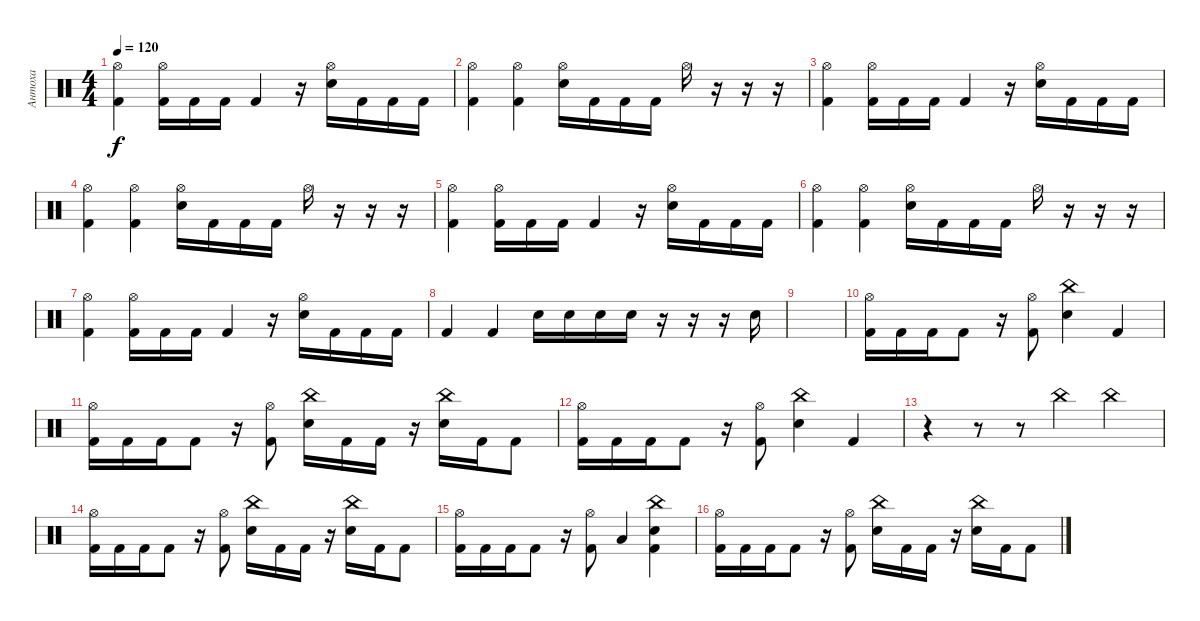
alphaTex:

\track ("Антоха" "Антоха") {instrument percussion}
\staff {score}
\articulation defaults
\ts (4 4)
\tempo 120
\clef neutral
\ks c
("Kick (hit) 2" "Hi-Hat (open)").4{dy f} ("Kick (hit) 2" "Hi-Hat (open)").16 "Kick (hit) 2".16 "Kick (hit) 2".16 "Kick (hit) 2".4 r.16 ("Electric Snare (hit)" "Hi-Hat (open)").16 "Kick (hit) 2".16 "Kick (hit) 2".16 "Kick (hit) 2".16 |
("Kick (hit) 2" "Hi-Hat (open)").4 ("Kick (hit) 2" "Hi-Hat (open)").4 ("Electric Snare (hit)" "Hi-Hat (open)").16 "Kick (hit) 2".16 "Kick (hit) 2".16 "Kick (hit) 2".16 "Hi-Hat (open)".16 r.16 r.16 r.16 |
("Kick (hit) 2" "Hi-Hat (open)").4 ("Kick (hit) 2" "Hi-Hat (open)").16 "Kick (hit) 2".16 "Kick (hit) 2".16 "Kick (hit) 2".4 r.16 ("Electric Snare (hit)" "Hi-Hat (open)").16 "Kick (hit) 2".16 "Kick (hit) 2".16 "Kick (hit) 2".16 |
("Kick (hit) 2" "Hi-Hat (open)").4 ("Kick (hit) 2" "Hi-Hat (open)").4 ("Electric Snare (hit)" "Hi-Hat (open)").16 "Kick (hit) 2".16 "Kick (hit) 2".16 "Kick (hit) 2".16 "Hi-Hat (open)".16 r.16 r.16 r.16 |
("Kick (hit) 2" "Hi-Hat (open)").4 ("Kick (hit) 2" "Hi-Hat (open)").16 "Kick (hit) 2".16 "Kick (hit) 2".16 "Kick (hit) 2".4 r.16 ("Electric Snare (hit)" "Hi-Hat (open)").16 "Kick (hit) 2".16 "Kick (hit) 2".16 "Kick (hit) 2".16 |
("Kick (hit) 2" "Hi-Hat (open)").4 ("Kick (hit) 2" "Hi-Hat (open)").4 ("Electric Snare (hit)" "Hi-Hat (open)").16 "Kick (hit) 2".16 "Kick (hit) 2".16 "Kick (hit) 2".16 "Hi-Hat (open)".16 r.16 r.16 r.16 |
("Kick (hit) 2" "Hi-Hat (open)").4 ("Kick (hit) 2" "Hi-Hat (open)").16 "Kick (hit) 2".16 "Kick (hit) 2".16 "Kick (hit) 2".4 r.16 ("Electric Snare (hit)" "Hi-Hat (open)").16 "Kick (hit) 2".16 "Kick (hit) 2".16 "Kick (hit) 2".16 |
"Kick (hit) 2".4 "Kick (hit) 2".4 "Electric Snare (hit)".16 "Electric Snare (hit)".16 "Electric Snare (hit)".16 "Electric Snare (hit)".16 r.16 r.16 r.16 "Electric Snare (hit)".16 |
|
("Kick (hit) 2" "Hi-Hat (open)").16 "Kick (hit) 2".16 "Kick (hit) 2".16 "Kick (hit) 2".8 r.16 ("Kick (hit) 2" "Hi-Hat (open)").8 ("Electric Snare (hit)" "China (hit)").4 "Kick (hit) 2".4 |
("Kick (hit) 2" "Hi-Hat (open)").16 "Kick (hit) 2".16 "Kick (hit) 2".16 "Kick (hit) 2".8 r.16 ("Kick (hit) 2" "Hi-Hat (open)").8 ("Electric Snare (hit)" "China (hit)").16 "Kick (hit) 2".16 "Kick (hit) 2".16 r.16 ("Electric Snare (hit)" "China (hit)").16 "Kick (hit) 2".16 "Kick (hit) 2".8 |
("Kick (hit) 2" "Hi-Hat (open)").16 "Kick (hit) 2".16 "Kick (hit) 2".16 "Kick (hit) 2".8 r.16 ("Kick (hit) 2" "Hi-Hat (open)").8 ("Electric Snare (hit)" "China (hit)").4 "Kick (hit) 2".4 |
r.4 r.8 r.8 "China (hit)".4 "China (hit)".4 |
("Kick (hit) 2" "Hi-Hat (open)").16 "Kick (hit) 2".16 "Kick (hit) 2".16 "Kick (hit) 2".8 r.16 ("Kick (hit) 2" "Hi-Hat (open)").8 ("Electric Snare (hit)" "China (hit)").16 "Kick (hit) 2".16 "Kick (hit) 2".16 r.16 ("Electric Snare (hit)" "China (hit)").16 "Kick (hit) 2".16 "Kick (hit) 2".8 |
("Kick (hit) 2" "Hi-Hat (open)").16 "Kick (hit) 2".16 "Kick (hit) 2".16 "Kick (hit) 2".8 r.16 ("Kick (hit) 2" "Hi-Hat (open)").8 "Low Floor Tom (hit)".4 ("Kick (hit) 2" "Electric Snare (hit)" "China (hit)").4 |
("Kick (hit) 2" "Hi-Hat (open)").16 "Kick (hit) 2".16 "Kick (hit) 2".16 "Kick (hit) 2".8 r.16 ("Kick (hit) 2" "Hi-Hat (open)").8 ("Electric Snare (hit)" "China (hit)").16 "Kick (hit) 2".16 "Kick (hit) 2".16 r.16 ("Electric Snare (hit)" "China (hit)").16 "Kick (hit) 2".16 "Kick (hit) 2".8
